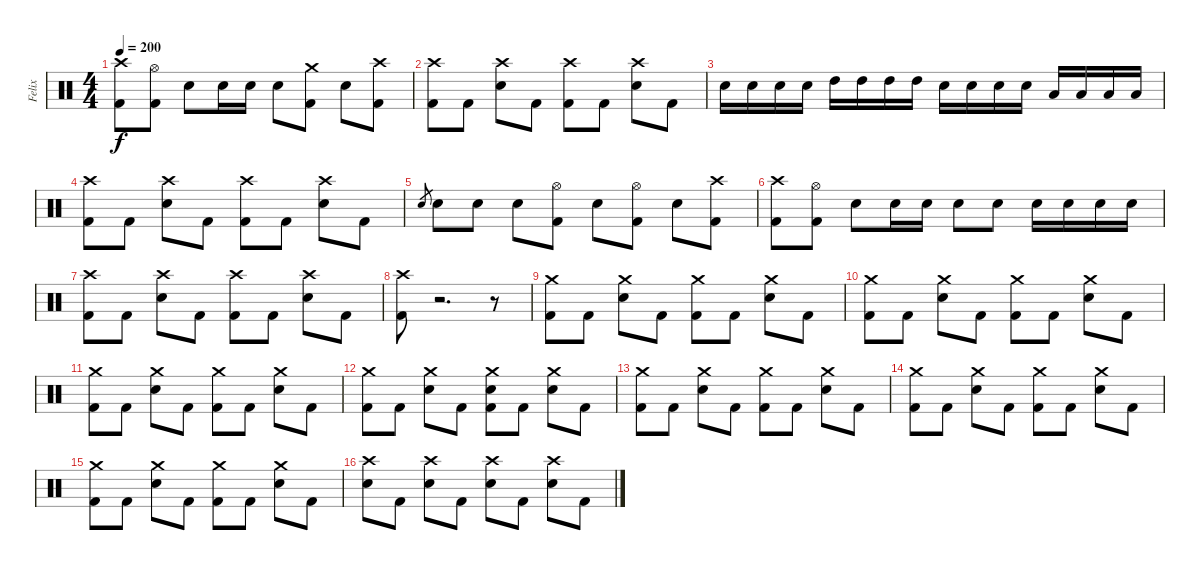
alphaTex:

\track ("Felix" "Felix") {instrument percussion}
\staff {score}
\articulation defaults
\ts (4 4)
\tempo 200
\clef neutral
\ks c
("Crash high (hit)" "Kick (hit) 2").8{dy f} ("Hi-Hat (open)" "Kick (hit) 2").8 "Electric Snare (hit)".8 "Electric Snare (hit)".16 "Electric Snare (hit)".16 "Electric Snare (hit)".8 ("Crash medium (hit)" "Kick (hit) 2").8 "Electric Snare (hit)".8 ("Crash high (hit)" "Kick (hit) 2").8 |
("Crash high (hit)" "Kick (hit) 2").8 "Kick (hit) 2".8 ("Crash high (hit)" "Electric Snare (hit)").8 "Kick (hit) 2".8 ("Crash high (hit)" "Kick (hit) 2").8 "Kick (hit) 2".8 ("Crash high (hit)" "Electric Snare (hit)").8 "Kick (hit) 2".8 |
"Electric Snare (hit)".16 "Electric Snare (hit)".16 "Electric Snare (hit)".16 "Electric Snare (hit)".16 "High Tom (hit)".16 "High Tom (hit)".16 "High Tom (hit)".16 "High Tom (hit)".16 "Electric Snare (hit)".16 "Electric Snare (hit)".16 "Electric Snare (hit)".16 "Electric Snare (hit)".16 "Low Floor Tom (hit)".16 "Low Floor Tom (hit)".16 "Low Floor Tom (hit)".16 "Low Floor Tom (hit)".16 |
("Crash high (hit)" "Kick (hit) 2").8 "Kick (hit) 2".8 ("Crash high (hit)" "Electric Snare (hit)").8 "Kick (hit) 2".8 ("Crash high (hit)" "Kick (hit) 2").8 "Kick (hit) 2".8 ("Crash high (hit)" "Electric Snare (hit)").8 "Kick (hit) 2".8 |
"Electric Snare (hit)".8{gr} "Electric Snare (hit)".8 "Electric Snare (hit)".8 "Electric Snare (hit)".8 ("Hi-Hat (open)" "Kick (hit) 2").8 "Electric Snare (hit)".8 ("Hi-Hat (open)" "Kick (hit) 2").8 "Electric Snare (hit)".8 ("Crash high (hit)" "Kick (hit) 2").8 |
("Crash high (hit)" "Kick (hit) 2").8 ("Hi-Hat (open)" "Kick (hit) 2").8 "Electric Snare (hit)".8 "Electric Snare (hit)".16 "Electric Snare (hit)".16 "Electric Snare (hit)".8 "Electric Snare (hit)".8 "Electric Snare (hit)".16 "Electric Snare (hit)".16 "Electric Snare (hit)".16 "Electric Snare (hit)".16 |
("Crash high (hit)" "Kick (hit) 2").8 "Kick (hit) 2".8 ("Crash high (hit)" "Electric Snare (hit)").8 "Kick (hit) 2".8 ("Crash high (hit)" "Kick (hit) 2").8 "Kick (hit) 2".8 ("Crash high (hit)" "Electric Snare (hit)").8 "Kick (hit) 2".8 |
("Crash high (hit)" "Kick (hit) 2").8 r.2{d} r.8 |
("Crash medium (hit)" "Kick (hit) 2").8 "Kick (hit) 2".8 ("Crash medium (hit)" "Electric Snare (hit)").8 "Kick (hit) 2".8 ("Crash medium (hit)" "Kick (hit) 2").8 "Kick (hit) 2".8 ("Crash medium (hit)" "Electric Snare (hit)").8 "Kick (hit) 2".8 |
("Crash medium (hit)" "Kick (hit) 2").8 "Kick (hit) 2".8 ("Crash medium (hit)" "Electric Snare (hit)").8 "Kick (hit) 2".8 ("Crash medium (hit)" "Kick (hit) 2").8 "Kick (hit) 2".8 ("Crash medium (hit)" "Electric Snare (hit)").8 "Kick (hit) 2".8 |
("Crash medium (hit)" "Kick (hit) 2").8 "Kick (hit) 2".8 ("Crash medium (hit)" "Electric Snare (hit)").8 "Kick (hit) 2".8 ("Crash medium (hit)" "Kick (hit) 2").8 "Kick (hit) 2".8 ("Crash medium (hit)" "Electric Snare (hit)").8 "Kick (hit) 2".8 |
("Crash medium (hit)" "Kick (hit) 2").8 "Kick (hit) 2".8 ("Crash medium (hit)" "Electric Snare (hit)").8 "Kick (hit) 2".8 ("Crash medium (hit)" "Electric Snare (hit)" "Kick (hit) 2").8 "Kick (hit) 2".8 ("Crash medium (hit)" "Electric Snare (hit)").8 "Kick (hit) 2".8 |
("Crash medium (hit)" "Kick (hit) 2").8 "Kick (hit) 2".8 ("Crash medium (hit)" "Electric Snare (hit)").8 "Kick (hit) 2".8 ("Crash medium (hit)" "Kick (hit) 2").8 "Kick (hit) 2".8 ("Crash medium (hit)" "Electric Snare (hit)").8 "Kick (hit) 2".8 |
("Crash medium (hit)" "Kick (hit) 2").8 "Kick (hit) 2".8 ("Crash medium (hit)" "Electric Snare (hit)").8 "Kick (hit) 2".8 ("Crash medium (hit)" "Kick (hit) 2").8 "Kick (hit) 2".8 ("Crash medium (hit)" "Electric Snare (hit)").8 "Kick (hit) 2".8 |
("Crash medium (hit)" "Kick (hit) 2").8 "Kick (hit) 2".8 ("Crash medium (hit)" "Electric Snare (hit)").8 "Kick (hit) 2".8 ("Crash medium (hit)" "Kick (hit) 2").8 "Kick (hit) 2".8 ("Crash medium (hit)" "Electric Snare (hit)").8 "Kick (hit) 2".8 |
("Crash high (hit)" "Electric Snare (hit)").8 "Kick (hit) 2".8 ("Crash high (hit)" "Electric Snare (hit)").8 "Kick (hit) 2".8 ("Crash high (hit)" "Electric Snare (hit)").8 "Kick (hit) 2".8 ("Crash high (hit)" "Electric Snare (hit)").8 "Kick (hit) 2".8
